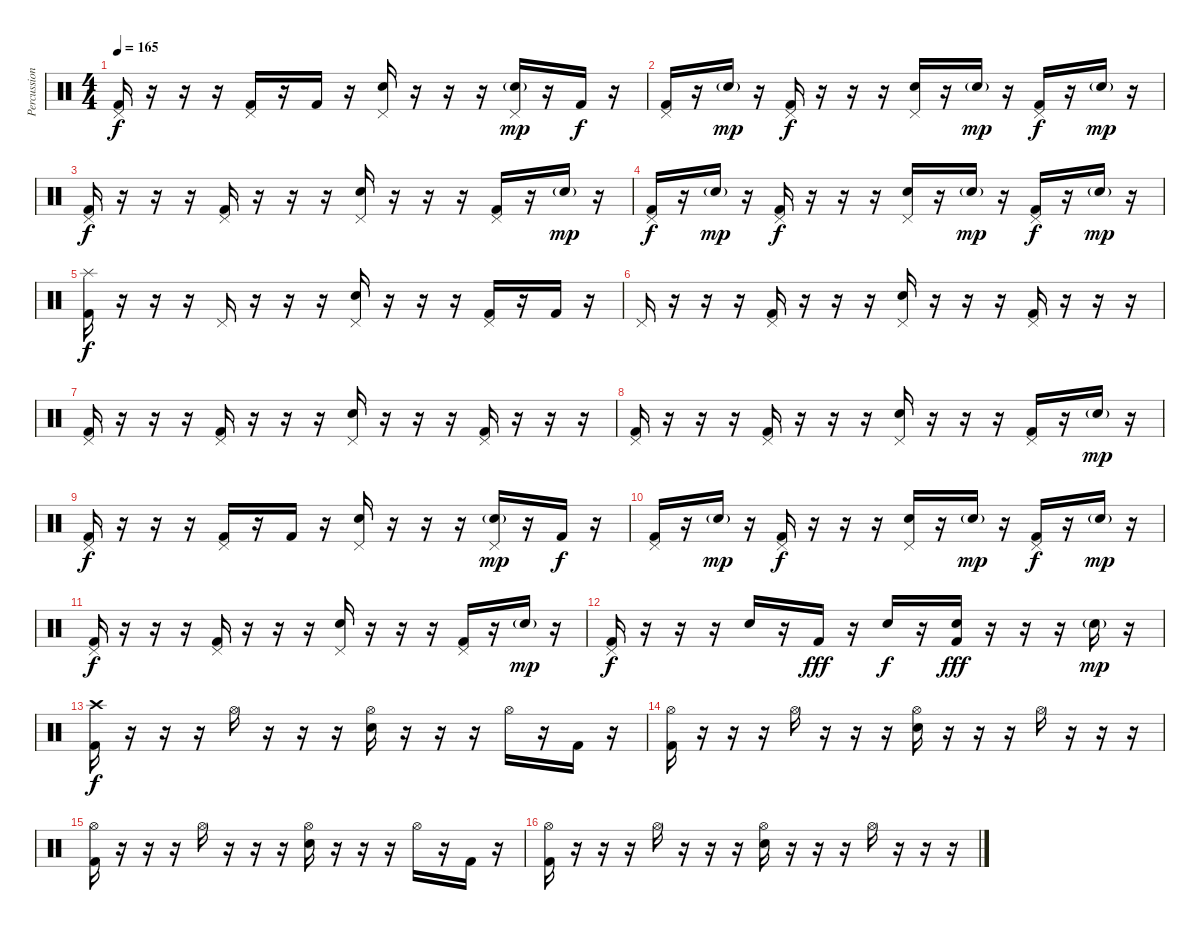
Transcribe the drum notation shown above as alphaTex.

\track ("Percussion" "Percussion") {instrument percussion}
\staff {score}
\articulation defaults
\ts (4 4)
\tempo 165
\clef neutral
\ks c
("Pedal Hi-Hat (hit)" "Kick (hit) 2").16{dy f} r.16 r.16 r.16 ("Pedal Hi-Hat (hit)" "Kick (hit) 2").16 r.16 "Kick (hit) 2".16 r.16 ("Pedal Hi-Hat (hit)" "Snare (hit) 2").16 r.16 r.16 r.16 ("Pedal Hi-Hat (hit)" "Snare (hit) 2"{g}).16{dy mp} r.16 "Kick (hit) 2".16{dy f} r.16 |
("Pedal Hi-Hat (hit)" "Kick (hit) 2").16 r.16 "Snare (hit) 2"{g}.16{dy mp} r.16 ("Pedal Hi-Hat (hit)" "Kick (hit) 2").16{dy f} r.16 r.16 r.16 ("Pedal Hi-Hat (hit)" "Snare (hit) 2").16 r.16 "Snare (hit) 2"{g}.16{dy mp} r.16 ("Pedal Hi-Hat (hit)" "Kick (hit) 2").16{dy f} r.16 "Snare (hit) 2"{g}.16{dy mp} r.16 |
("Pedal Hi-Hat (hit)" "Kick (hit) 2").16{dy f} r.16 r.16 r.16 ("Pedal Hi-Hat (hit)" "Kick (hit) 2").16 r.16 r.16 r.16 ("Pedal Hi-Hat (hit)" "Snare (hit) 2").16 r.16 r.16 r.16 ("Pedal Hi-Hat (hit)" "Kick (hit) 2").16 r.16 "Snare (hit) 2"{g}.16{dy mp} r.16 |
("Pedal Hi-Hat (hit)" "Kick (hit) 2").16{dy f} r.16 "Snare (hit) 2"{g}.16{dy mp} r.16 ("Pedal Hi-Hat (hit)" "Kick (hit) 2").16{dy f} r.16 r.16 r.16 ("Pedal Hi-Hat (hit)" "Snare (hit) 2").16 r.16 "Snare (hit) 2"{g}.16{dy mp} r.16 ("Pedal Hi-Hat (hit)" "Kick (hit) 2").16{dy f} r.16 "Snare (hit) 2"{g}.16{dy mp} r.16 |
("Splash (hit)" "Kick (hit) 2").16{dy f} r.16 r.16 r.16 "Pedal Hi-Hat (hit)".16 r.16 r.16 r.16 ("Pedal Hi-Hat (hit)" "Snare (hit) 2").16 r.16 r.16 r.16 ("Pedal Hi-Hat (hit)" "Kick (hit) 2").16 r.16 "Kick (hit) 2".16 r.16 |
"Pedal Hi-Hat (hit)".16 r.16 r.16 r.16 ("Pedal Hi-Hat (hit)" "Kick (hit) 2").16 r.16 r.16 r.16 ("Pedal Hi-Hat (hit)" "Snare (hit) 2").16 r.16 r.16 r.16 ("Pedal Hi-Hat (hit)" "Kick (hit) 2").16 r.16 r.16 r.16 |
("Pedal Hi-Hat (hit)" "Kick (hit) 2").16 r.16 r.16 r.16 ("Pedal Hi-Hat (hit)" "Kick (hit) 2").16 r.16 r.16 r.16 ("Pedal Hi-Hat (hit)" "Snare (hit) 2").16 r.16 r.16 r.16 ("Pedal Hi-Hat (hit)" "Kick (hit) 2").16 r.16 r.16 r.16 |
("Pedal Hi-Hat (hit)" "Kick (hit) 2").16 r.16 r.16 r.16 ("Pedal Hi-Hat (hit)" "Kick (hit) 2").16 r.16 r.16 r.16 ("Pedal Hi-Hat (hit)" "Snare (hit) 2").16 r.16 r.16 r.16 ("Pedal Hi-Hat (hit)" "Kick (hit) 2").16 r.16 "Snare (hit) 2"{g}.16{dy mp} r.16 |
("Pedal Hi-Hat (hit)" "Kick (hit) 2").16{dy f} r.16 r.16 r.16 ("Pedal Hi-Hat (hit)" "Kick (hit) 2").16 r.16 "Kick (hit) 2".16 r.16 ("Pedal Hi-Hat (hit)" "Snare (hit) 2").16 r.16 r.16 r.16 ("Pedal Hi-Hat (hit)" "Snare (hit) 2"{g}).16{dy mp} r.16 "Kick (hit) 2".16{dy f} r.16 |
("Pedal Hi-Hat (hit)" "Kick (hit) 2").16 r.16 "Snare (hit) 2"{g}.16{dy mp} r.16 ("Pedal Hi-Hat (hit)" "Kick (hit) 2").16{dy f} r.16 r.16 r.16 ("Pedal Hi-Hat (hit)" "Snare (hit) 2").16 r.16 "Snare (hit) 2"{g}.16{dy mp} r.16 ("Pedal Hi-Hat (hit)" "Kick (hit) 2").16{dy f} r.16 "Snare (hit) 2"{g}.16{dy mp} r.16 |
("Pedal Hi-Hat (hit)" "Kick (hit) 2").16{dy f} r.16 r.16 r.16 ("Pedal Hi-Hat (hit)" "Kick (hit) 2").16 r.16 r.16 r.16 ("Pedal Hi-Hat (hit)" "Snare (hit) 2").16 r.16 r.16 r.16 ("Pedal Hi-Hat (hit)" "Kick (hit) 2").16 r.16 "Snare (hit) 2"{g}.16{dy mp} r.16 |
("Pedal Hi-Hat (hit)" "Kick (hit) 2").16{dy f} r.16 r.16 r.16 "Snare (hit) 2".16 r.16 "Kick (hit) 2".16{dy fff} r.16 "Snare (hit) 2".16{dy f} r.16 ("Snare (hit) 2" "Kick (hit) 2").16{dy fff} r.16 r.16 r.16 "Snare (hit) 2"{g}.16{dy mp} r.16 |
("Crash high (hit)" "Kick (hit) 2").16{dy f} r.16 r.16 r.16 "Hi-Hat (open)".16 r.16 r.16 r.16 ("Hi-Hat (open)" "Snare (hit) 2").16 r.16 r.16 r.16 "Hi-Hat (open)".16 r.16 "Kick (hit) 2".16 r.16 |
("Hi-Hat (open)" "Kick (hit) 2").16 r.16 r.16 r.16 "Hi-Hat (open)".16 r.16 r.16 r.16 ("Hi-Hat (open)" "Snare (hit) 2").16 r.16 r.16 r.16 "Hi-Hat (open)".16 r.16 r.16 r.16 |
("Hi-Hat (open)" "Kick (hit) 2").16 r.16 r.16 r.16 "Hi-Hat (open)".16 r.16 r.16 r.16 ("Hi-Hat (open)" "Snare (hit) 2").16 r.16 r.16 r.16 "Hi-Hat (open)".16 r.16 "Kick (hit) 2".16 r.16 |
("Hi-Hat (open)" "Kick (hit) 2").16 r.16 r.16 r.16 "Hi-Hat (open)".16 r.16 r.16 r.16 ("Hi-Hat (open)" "Snare (hit) 2").16 r.16 r.16 r.16 "Hi-Hat (open)".16 r.16 r.16 r.16
